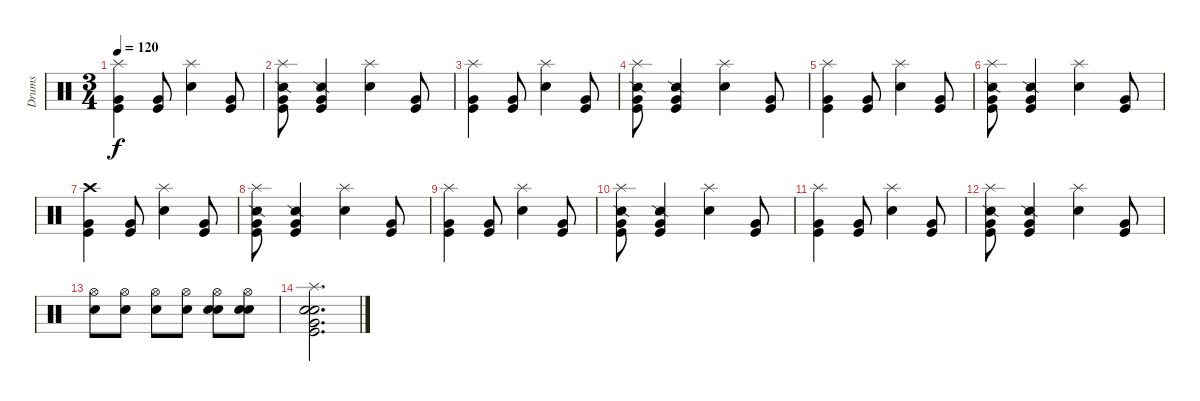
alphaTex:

\track ("Drums" "Drums") {instrument percussion}
\staff {score}
\articulation defaults
\ts (3 4)
\tempo 120
\clef neutral
\ks c
("Splash (hit)" "Very Low Tom (hit)" "Kick (hit)").4{dy f} ("Very Low Tom (hit)" "Kick (hit)").8 ("Splash (hit)" "Electric Snare (hit)").4 ("Very Low Tom (hit)" "Kick (hit)").8 |
("Splash (hit)" "Snare (side stick) 2" "Very Low Tom (hit)" "Kick (hit)").8 ("Snare (side stick) 2" "Very Low Tom (hit)" "Kick (hit)").4 ("Splash (hit)" "Electric Snare (hit)").4 ("Very Low Tom (hit)" "Kick (hit)").8 |
("Splash (hit)" "Very Low Tom (hit)" "Kick (hit)").4 ("Very Low Tom (hit)" "Kick (hit)").8 ("Splash (hit)" "Electric Snare (hit)").4 ("Very Low Tom (hit)" "Kick (hit)").8 |
("Splash (hit)" "Snare (side stick) 2" "Very Low Tom (hit)" "Kick (hit)").8 ("Snare (side stick) 2" "Very Low Tom (hit)" "Kick (hit)").4 ("Splash (hit)" "Electric Snare (hit)").4 ("Very Low Tom (hit)" "Kick (hit)").8 |
("Splash (hit)" "Very Low Tom (hit)" "Kick (hit)").4 ("Very Low Tom (hit)" "Kick (hit)").8 ("Splash (hit)" "Electric Snare (hit)").4 ("Very Low Tom (hit)" "Kick (hit)").8 |
("Splash (hit)" "Snare (side stick) 2" "Very Low Tom (hit)" "Kick (hit)").8 ("Snare (side stick) 2" "Very Low Tom (hit)" "Kick (hit)").4 ("Splash (hit)" "Electric Snare (hit)").4 ("Very Low Tom (hit)" "Kick (hit)").8 |
("Crash high (hit)" "Very Low Tom (hit)" "Kick (hit)").4 ("Very Low Tom (hit)" "Kick (hit)").8 ("Splash (hit)" "Electric Snare (hit)").4 ("Very Low Tom (hit)" "Kick (hit)").8 |
("Splash (hit)" "Snare (side stick) 2" "Very Low Tom (hit)" "Kick (hit)").8 ("Snare (side stick) 2" "Very Low Tom (hit)" "Kick (hit)").4 ("Splash (hit)" "Electric Snare (hit)").4 ("Very Low Tom (hit)" "Kick (hit)").8 |
("Splash (hit)" "Very Low Tom (hit)" "Kick (hit)").4 ("Very Low Tom (hit)" "Kick (hit)").8 ("Splash (hit)" "Electric Snare (hit)").4 ("Very Low Tom (hit)" "Kick (hit)").8 |
("Splash (hit)" "Snare (side stick) 2" "Very Low Tom (hit)" "Kick (hit)").8 ("Snare (side stick) 2" "Very Low Tom (hit)" "Kick (hit)").4 ("Splash (hit)" "Electric Snare (hit)").4 ("Very Low Tom (hit)" "Kick (hit)").8 |
("Splash (hit)" "Very Low Tom (hit)" "Kick (hit)").4 ("Very Low Tom (hit)" "Kick (hit)").8 ("Splash (hit)" "Electric Snare (hit)").4 ("Very Low Tom (hit)" "Kick (hit)").8 |
("Splash (hit)" "Snare (side stick) 2" "Very Low Tom (hit)" "Kick (hit)").8 ("Snare (side stick) 2" "Very Low Tom (hit)" "Kick (hit)").4 ("Splash (hit)" "Electric Snare (hit)").4 ("Very Low Tom (hit)" "Kick (hit)").8 |
("Hi-Hat (open)" "Snare (hit) 2").8 ("Hi-Hat (open)" "Snare (hit) 2").8 ("Hi-Hat (open)" "Snare (hit) 2").8 ("Hi-Hat (open)" "Snare (hit) 2").8 ("Hi-Hat (open)" "Snare (hit) 2" "Electric Snare (hit)").8 ("Hi-Hat (open)" "Snare (hit) 2" "Electric Snare (hit)").8 |
("Splash (hit)" "Electric Snare (hit)" "Snare (hit) 2" "Very Low Tom (hit)" "Kick (hit)").2{d}
